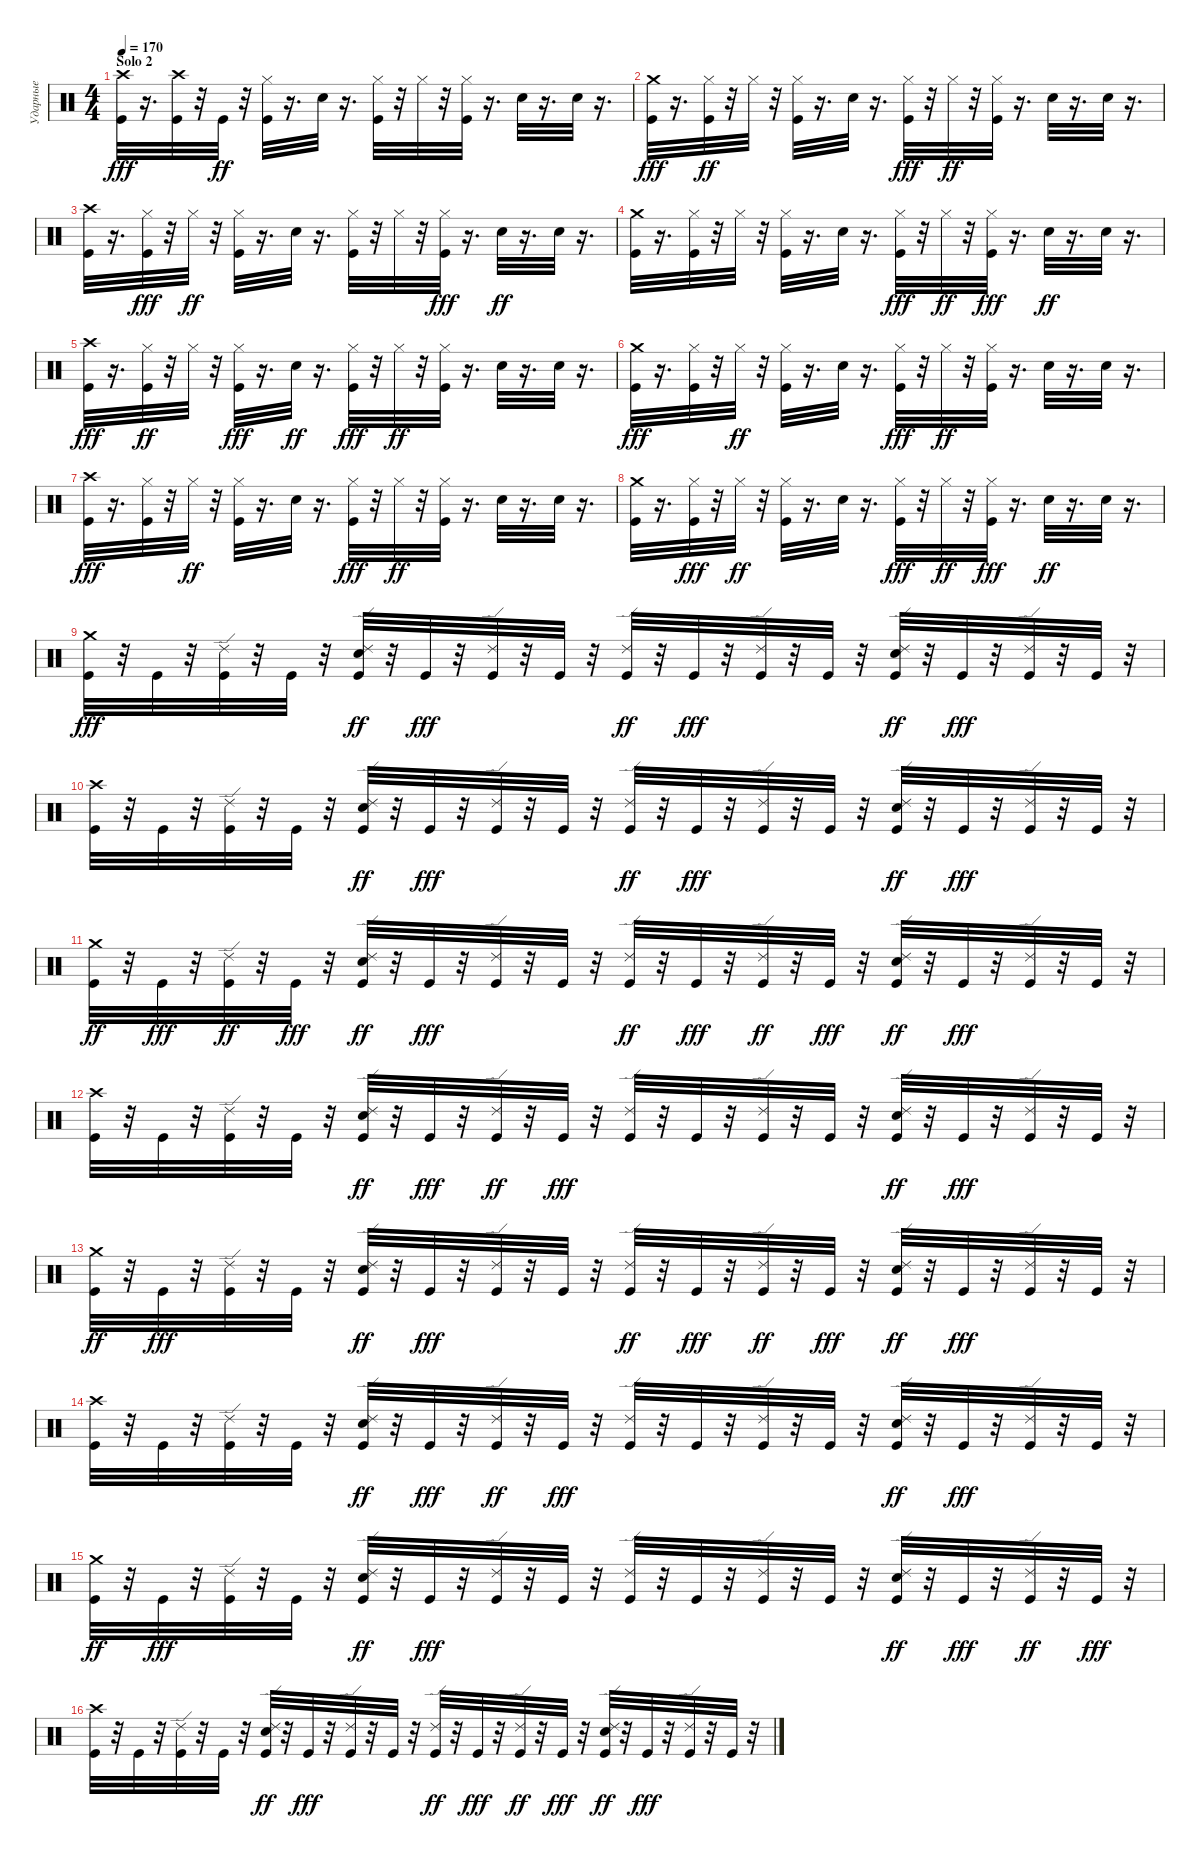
\track ("Ударные" "Ударные") {instrument percussion}
\staff {score}
\articulation defaults
\ts (4 4)
\section ("" "Solo 2")
\tempo 170
\clef neutral
\ks c
("Crash high (hit)" "Kick (hit)").32{dy fff} r.16{d} ("Crash high (hit)" "Kick (hit)").32 r.32 "Kick (hit)".32{dy ff} r.32 ("Kick (hit)" "Hi-Hat (closed)").32 r.16{d} "Snare (hit) 2".32 r.16{d} ("Kick (hit)" "Hi-Hat (closed)").32 r.32 "Hi-Hat (closed)".32 r.32 ("Kick (hit)" "Hi-Hat (closed)").32 r.16{d} "Snare (hit) 2".32 r.16{d} "Snare (hit) 2".32 r.16{d} |
("Crash medium (hit)" "Kick (hit)").32{dy fff} r.16{d} ("Kick (hit)" "Hi-Hat (closed)").32{dy ff} r.32 "Hi-Hat (closed)".32 r.32 ("Kick (hit)" "Hi-Hat (closed)").32 r.16{d} "Snare (hit) 2".32 r.16{d} ("Hi-Hat (closed)" "Kick (hit)").32{dy fff} r.32 "Hi-Hat (closed)".32{dy ff} r.32 ("Kick (hit)" "Hi-Hat (closed)").32 r.16{d} "Snare (hit) 2".32 r.16{d} "Snare (hit) 2".32 r.16{d} |
("Kick (hit)" "Crash high (hit)").32 r.16{d} ("Hi-Hat (closed)" "Kick (hit)").32{dy fff} r.32 "Hi-Hat (closed)".32{dy ff} r.32 ("Kick (hit)" "Hi-Hat (closed)").32 r.16{d} "Snare (hit) 2".32 r.16{d} ("Kick (hit)" "Hi-Hat (closed)").32 r.32 "Hi-Hat (closed)".32 r.32 ("Hi-Hat (closed)" "Kick (hit)").32{dy fff} r.16{d} "Snare (hit) 2".32{dy ff} r.16{d} "Snare (hit) 2".32 r.16{d} |
("Kick (hit)" "Crash medium (hit)").32 r.16{d} ("Kick (hit)" "Hi-Hat (closed)").32 r.32 "Hi-Hat (closed)".32 r.32 ("Kick (hit)" "Hi-Hat (closed)").32 r.16{d} "Snare (hit) 2".32 r.16{d} ("Hi-Hat (closed)" "Kick (hit)").32{dy fff} r.32 "Hi-Hat (closed)".32{dy ff} r.32 ("Hi-Hat (closed)" "Kick (hit)").32{dy fff} r.16{d} "Snare (hit) 2".32{dy ff} r.16{d} "Snare (hit) 2".32 r.16{d} |
("Crash high (hit)" "Kick (hit)").32{dy fff} r.16{d} ("Kick (hit)" "Hi-Hat (closed)").32{dy ff} r.32 "Hi-Hat (closed)".32 r.32 ("Hi-Hat (closed)" "Kick (hit)").32{dy fff} r.16{d} "Snare (hit) 2".32{dy ff} r.16{d} ("Hi-Hat (closed)" "Kick (hit)").32{dy fff} r.32 "Hi-Hat (closed)".32{dy ff} r.32 ("Kick (hit)" "Hi-Hat (closed)").32 r.16{d} "Snare (hit) 2".32 r.16{d} "Snare (hit) 2".32 r.16{d} |
("Crash medium (hit)" "Kick (hit)").32{dy fff} r.16{d} ("Hi-Hat (closed)" "Kick (hit)").32 r.32 "Hi-Hat (closed)".32{dy ff} r.32 ("Kick (hit)" "Hi-Hat (closed)").32 r.16{d} "Snare (hit) 2".32 r.16{d} ("Hi-Hat (closed)" "Kick (hit)").32{dy fff} r.32 "Hi-Hat (closed)".32{dy ff} r.32 ("Kick (hit)" "Hi-Hat (closed)").32 r.16{d} "Snare (hit) 2".32 r.16{d} "Snare (hit) 2".32 r.16{d} |
("Crash high (hit)" "Kick (hit)").32{dy fff} r.16{d} ("Hi-Hat (closed)" "Kick (hit)").32 r.32 "Hi-Hat (closed)".32{dy ff} r.32 ("Kick (hit)" "Hi-Hat (closed)").32 r.16{d} "Snare (hit) 2".32 r.16{d} ("Hi-Hat (closed)" "Kick (hit)").32{dy fff} r.32 "Hi-Hat (closed)".32{dy ff} r.32 ("Kick (hit)" "Hi-Hat (closed)").32 r.16{d} "Snare (hit) 2".32 r.16{d} "Snare (hit) 2".32 r.16{d} |
("Kick (hit)" "Crash medium (hit)").32 r.16{d} ("Hi-Hat (closed)" "Kick (hit)").32{dy fff} r.32 "Hi-Hat (closed)".32{dy ff} r.32 ("Kick (hit)" "Hi-Hat (closed)").32 r.16{d} "Snare (hit) 2".32 r.16{d} ("Hi-Hat (closed)" "Kick (hit)").32{dy fff} r.32 "Hi-Hat (closed)".32{dy ff} r.32 ("Hi-Hat (closed)" "Kick (hit)").32{dy fff} r.16{d} "Snare (hit) 2".32{dy ff} r.16{d} "Snare (hit) 2".32 r.16{d} |
("Crash medium (hit)" "Kick (hit)").32{dy fff} r.32 "Kick (hit)".32 r.32 ("Ride (edge) 2" "Kick (hit)").32 r.32 "Kick (hit)".32 r.32 ("Ride (edge) 2" "Kick (hit)" "Snare (hit) 2").32{dy ff} r.32 "Kick (hit)".32{dy fff} r.32 ("Ride (edge) 2" "Kick (hit)").32 r.32 "Kick (hit)".32 r.32 ("Kick (hit)" "Ride (edge) 2").32{dy ff} r.32 "Kick (hit)".32{dy fff} r.32 ("Ride (edge) 2" "Kick (hit)").32 r.32 "Kick (hit)".32 r.32 ("Ride (edge) 2" "Kick (hit)" "Snare (hit) 2").32{dy ff} r.32 "Kick (hit)".32{dy fff} r.32 ("Ride (edge) 2" "Kick (hit)").32 r.32 "Kick (hit)".32 r.32 |
("Crash high (hit)" "Kick (hit)").32 r.32 "Kick (hit)".32 r.32 ("Ride (edge) 2" "Kick (hit)").32 r.32 "Kick (hit)".32 r.32 ("Ride (edge) 2" "Kick (hit)" "Snare (hit) 2").32{dy ff} r.32 "Kick (hit)".32{dy fff} r.32 ("Ride (edge) 2" "Kick (hit)").32 r.32 "Kick (hit)".32 r.32 ("Kick (hit)" "Ride (edge) 2").32{dy ff} r.32 "Kick (hit)".32{dy fff} r.32 ("Ride (edge) 2" "Kick (hit)").32 r.32 "Kick (hit)".32 r.32 ("Ride (edge) 2" "Kick (hit)" "Snare (hit) 2").32{dy ff} r.32 "Kick (hit)".32{dy fff} r.32 ("Ride (edge) 2" "Kick (hit)").32 r.32 "Kick (hit)".32 r.32 |
("Kick (hit)" "Crash medium (hit)").32{dy ff} r.32 "Kick (hit)".32{dy fff} r.32 ("Kick (hit)" "Ride (edge) 2").32{dy ff} r.32 "Kick (hit)".32{dy fff} r.32 ("Kick (hit)" "Ride (edge) 2" "Snare (hit) 2").32{dy ff} r.32 "Kick (hit)".32{dy fff} r.32 ("Ride (edge) 2" "Kick (hit)").32 r.32 "Kick (hit)".32 r.32 ("Kick (hit)" "Ride (edge) 2").32{dy ff} r.32 "Kick (hit)".32{dy fff} r.32 ("Kick (hit)" "Ride (edge) 2").32{dy ff} r.32 "Kick (hit)".32{dy fff} r.32 ("Kick (hit)" "Ride (edge) 2" "Snare (hit) 2").32{dy ff} r.32 "Kick (hit)".32{dy fff} r.32 ("Ride (edge) 2" "Kick (hit)").32 r.32 "Kick (hit)".32 r.32 |
("Kick (hit)" "Crash high (hit)").32 r.32 "Kick (hit)".32 r.32 ("Ride (edge) 2" "Kick (hit)").32 r.32 "Kick (hit)".32 r.32 ("Ride (edge) 2" "Kick (hit)" "Snare (hit) 2").32{dy ff} r.32 "Kick (hit)".32{dy fff} r.32 ("Kick (hit)" "Ride (edge) 2").32{dy ff} r.32 "Kick (hit)".32{dy fff} r.32 ("Ride (edge) 2" "Kick (hit)").32 r.32 "Kick (hit)".32 r.32 ("Ride (edge) 2" "Kick (hit)").32 r.32 "Kick (hit)".32 r.32 ("Kick (hit)" "Ride (edge) 2" "Snare (hit) 2").32{dy ff} r.32 "Kick (hit)".32{dy fff} r.32 ("Ride (edge) 2" "Kick (hit)").32 r.32 "Kick (hit)".32 r.32 |
("Kick (hit)" "Crash medium (hit)").32{dy ff} r.32 "Kick (hit)".32{dy fff} r.32 ("Ride (edge) 2" "Kick (hit)").32 r.32 "Kick (hit)".32 r.32 ("Kick (hit)" "Ride (edge) 2" "Snare (hit) 2").32{dy ff} r.32 "Kick (hit)".32{dy fff} r.32 ("Ride (edge) 2" "Kick (hit)").32 r.32 "Kick (hit)".32 r.32 ("Kick (hit)" "Ride (edge) 2").32{dy ff} r.32 "Kick (hit)".32{dy fff} r.32 ("Kick (hit)" "Ride (edge) 2").32{dy ff} r.32 "Kick (hit)".32{dy fff} r.32 ("Kick (hit)" "Ride (edge) 2" "Snare (hit) 2").32{dy ff} r.32 "Kick (hit)".32{dy fff} r.32 ("Ride (edge) 2" "Kick (hit)").32 r.32 "Kick (hit)".32 r.32 |
("Kick (hit)" "Crash high (hit)").32 r.32 "Kick (hit)".32 r.32 ("Ride (edge) 2" "Kick (hit)").32 r.32 "Kick (hit)".32 r.32 ("Ride (edge) 2" "Kick (hit)" "Snare (hit) 2").32{dy ff} r.32 "Kick (hit)".32{dy fff} r.32 ("Kick (hit)" "Ride (edge) 2").32{dy ff} r.32 "Kick (hit)".32{dy fff} r.32 ("Ride (edge) 2" "Kick (hit)").32 r.32 "Kick (hit)".32 r.32 ("Ride (edge) 2" "Kick (hit)").32 r.32 "Kick (hit)".32 r.32 ("Kick (hit)" "Ride (edge) 2" "Snare (hit) 2").32{dy ff} r.32 "Kick (hit)".32{dy fff} r.32 ("Ride (edge) 2" "Kick (hit)").32 r.32 "Kick (hit)".32 r.32 |
("Kick (hit)" "Crash medium (hit)").32{dy ff} r.32 "Kick (hit)".32{dy fff} r.32 ("Ride (edge) 2" "Kick (hit)").32 r.32 "Kick (hit)".32 r.32 ("Ride (edge) 2" "Kick (hit)" "Snare (hit) 2").32{dy ff} r.32 "Kick (hit)".32{dy fff} r.32 ("Ride (edge) 2" "Kick (hit)").32 r.32 "Kick (hit)".32 r.32 ("Ride (edge) 2" "Kick (hit)").32 r.32 "Kick (hit)".32 r.32 ("Ride (edge) 2" "Kick (hit)").32 r.32 "Kick (hit)".32 r.32 ("Ride (edge) 2" "Kick (hit)" "Snare (hit) 2").32{dy ff} r.32 "Kick (hit)".32{dy fff} r.32 ("Kick (hit)" "Ride (edge) 2").32{dy ff} r.32 "Kick (hit)".32{dy fff} r.32 |
("Crash high (hit)" "Kick (hit)").32 r.32 "Kick (hit)".32 r.32 ("Ride (edge) 2" "Kick (hit)").32 r.32 "Kick (hit)".32 r.32 ("Kick (hit)" "Ride (edge) 2" "Snare (hit) 2").32{dy ff} r.32 "Kick (hit)".32{dy fff} r.32 ("Ride (edge) 2" "Kick (hit)").32 r.32 "Kick (hit)".32 r.32 ("Kick (hit)" "Ride (edge) 2").32{dy ff} r.32 "Kick (hit)".32{dy fff} r.32 ("Kick (hit)" "Ride (edge) 2").32{dy ff} r.32 "Kick (hit)".32{dy fff} r.32 ("Ride (edge) 2" "Kick (hit)" "Snare (hit) 2").32{dy ff} r.32 "Kick (hit)".32{dy fff} r.32 ("Ride (edge) 2" "Kick (hit)").32 r.32 "Kick (hit)".32 r.32
